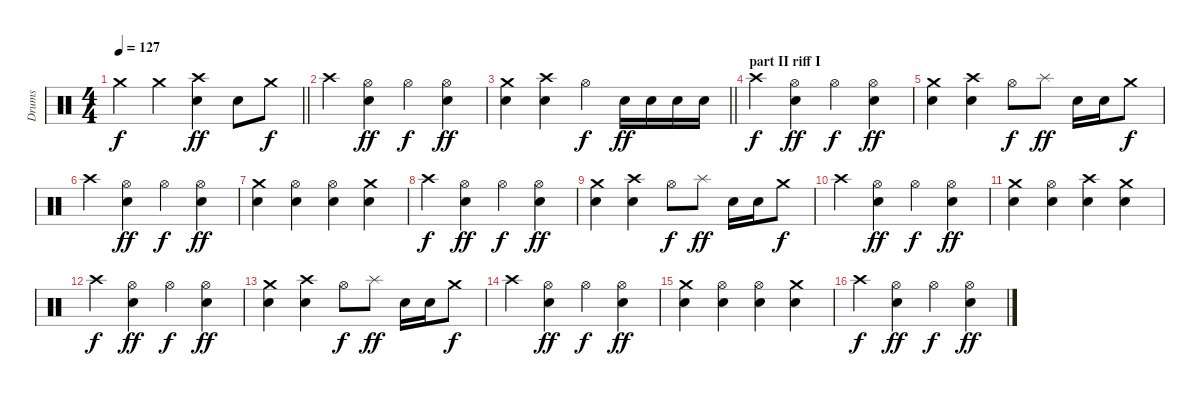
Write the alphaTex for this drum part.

\track ("Drums" "Drums") {instrument percussion}
\staff {score}
\articulation defaults
\ts (4 4)
\tempo 127
\clef neutral
\barLineRight lightlight
\ks c "Crash medium (hit)".4{dy f} "Crash medium (hit)".4
("Crash high (hit)" "Snare (hit) 2").4{dy ff} "Snare (hit) 2".8 "Crash medium (hit)".8{dy f} |
\section ("" "")
"Crash high (hit)".4 ("Hi-Hat (open)" "Snare (hit) 2").4{dy ff} "Hi-Hat (open)".4{dy f} ("Hi-Hat (open)" "Snare (hit) 2").4{dy ff} |
\barLineRight lightlight
("Crash medium (hit)" "Snare (hit) 2").4 ("Crash high (hit)" "Snare (hit) 2").4 "Hi-Hat (open)".4{dy f} "Snare (hit) 2".16{dy ff} "Snare (hit) 2".16 "Snare (hit) 2".16 "Snare (hit) 2".16 |
\section ("" "part II riff I")
"Crash high (hit)".4{dy f} ("Hi-Hat (open)" "Snare (hit) 2").4{dy ff} "Hi-Hat (open)".4{dy f} ("Hi-Hat (open)" "Snare (hit) 2").4{dy ff} |
("Crash medium (hit)" "Snare (hit) 2").4 ("Crash high (hit)" "Snare (hit) 2").4 "Hi-Hat (open)".8{dy f} "Splash (hit)".8{dy ff} "Snare (hit) 2".16 "Snare (hit) 2".16 "Crash medium (hit)".8{dy f} |
"Crash high (hit)".4 ("Hi-Hat (open)" "Snare (hit) 2").4{dy ff} "Hi-Hat (open)".4{dy f} ("Hi-Hat (open)" "Snare (hit) 2").4{dy ff} |
("Crash medium (hit)" "Snare (hit) 2").4 ("Hi-Hat (open)" "Snare (hit) 2").4 ("Hi-Hat (open)" "Snare (hit) 2").4 ("Crash medium (hit)" "Snare (hit) 2").4 |
"Crash high (hit)".4{dy f} ("Hi-Hat (open)" "Snare (hit) 2").4{dy ff} "Hi-Hat (open)".4{dy f} ("Hi-Hat (open)" "Snare (hit) 2").4{dy ff} |
("Crash medium (hit)" "Snare (hit) 2").4 ("Crash high (hit)" "Snare (hit) 2").4 "Hi-Hat (open)".8{dy f} "Splash (hit)".8{dy ff} "Snare (hit) 2".16 "Snare (hit) 2".16 "Crash medium (hit)".8{dy f} |
"Crash high (hit)".4 ("Hi-Hat (open)" "Snare (hit) 2").4{dy ff} "Hi-Hat (open)".4{dy f} ("Hi-Hat (open)" "Snare (hit) 2").4{dy ff} |
("Crash medium (hit)" "Snare (hit) 2").4 ("Hi-Hat (open)" "Snare (hit) 2").4 ("Crash high (hit)" "Snare (hit) 2").4 ("Crash medium (hit)" "Snare (hit) 2").4 |
"Crash high (hit)".4{dy f} ("Hi-Hat (open)" "Snare (hit) 2").4{dy ff} "Hi-Hat (open)".4{dy f} ("Hi-Hat (open)" "Snare (hit) 2").4{dy ff} |
("Crash medium (hit)" "Snare (hit) 2").4 ("Crash high (hit)" "Snare (hit) 2").4 "Hi-Hat (open)".8{dy f} "Splash (hit)".8{dy ff} "Snare (hit) 2".16 "Snare (hit) 2".16 "Crash medium (hit)".8{dy f} |
"Crash high (hit)".4 ("Hi-Hat (open)" "Snare (hit) 2").4{dy ff} "Hi-Hat (open)".4{dy f} ("Hi-Hat (open)" "Snare (hit) 2").4{dy ff} |
("Crash medium (hit)" "Snare (hit) 2").4 ("Hi-Hat (open)" "Snare (hit) 2").4 ("Hi-Hat (open)" "Snare (hit) 2").4 ("Crash medium (hit)" "Snare (hit) 2").4 |
"Crash high (hit)".4{dy f} ("Hi-Hat (open)" "Snare (hit) 2").4{dy ff} "Hi-Hat (open)".4{dy f} ("Hi-Hat (open)" "Snare (hit) 2").4{dy ff}
